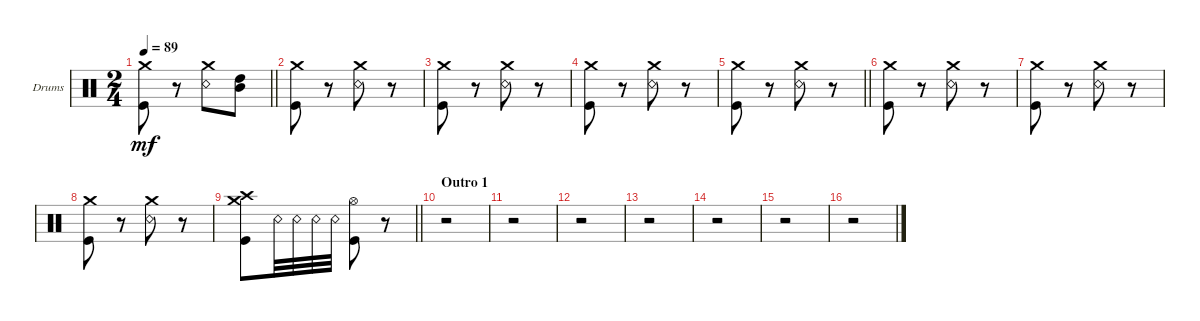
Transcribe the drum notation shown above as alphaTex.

\bracketExtendMode groupsimilarinstruments
\firstSystemTrackNameOrientation horizontal
\otherSystemsTrackNameOrientation horizontal
\track ("Ryo" "Drums") {instrument percussion}
\staff {score}
\articulation defaults
\ts (2 4)
\tempo 89
\clef neutral
\barLineRight lightlight
\ks c
("Kick (hit)" "Crash medium (hit)").8{dy mf} r.8 ("Crash medium (hit)" "Snare (rim shot)").8 ("Mid Tom (hit)" "High Tom (hit)").8 |
("Kick (hit)" "Crash medium (hit)").8 r.8 ("Crash medium (hit)" "Snare (rim shot)").8 r.8 |
("Crash medium (hit)" "Kick (hit)").8 r.8 ("Crash medium (hit)" "Snare (rim shot)").8 r.8 |
("Crash medium (hit)" "Kick (hit)").8 r.8 ("Crash medium (hit)" "Snare (rim shot)").8 r.8 |
\barLineRight lightlight
("Kick (hit)" "Crash medium (hit)").8 r.8 ("Crash medium (hit)" "Snare (rim shot)").8 r.8 |
("Kick (hit)" "Crash medium (hit)").8 r.8 ("Crash medium (hit)" "Snare (rim shot)").8 r.8 |
("Crash medium (hit)" "Kick (hit)").8 r.8 ("Crash medium (hit)" "Snare (rim shot)").8 r.8 |
("Crash medium (hit)" "Kick (hit)").8 r.8 ("Crash medium (hit)" "Snare (rim shot)").8 r.8 |
\barLineRight lightlight
("Kick (hit)" "Crash medium (hit)" "Crash high (hit)").8 "Snare (rim shot)".32 "Snare (rim shot)".32 "Snare (rim shot)".32 "Snare (rim shot)".32 ("Kick (hit)" "Hi-Hat (open)").8 r.8 |
\section ("" "Outro 1")
r.2 |
r.2 |
r.2 |
r.2 |
r.2 |
r.2 |
r.2
